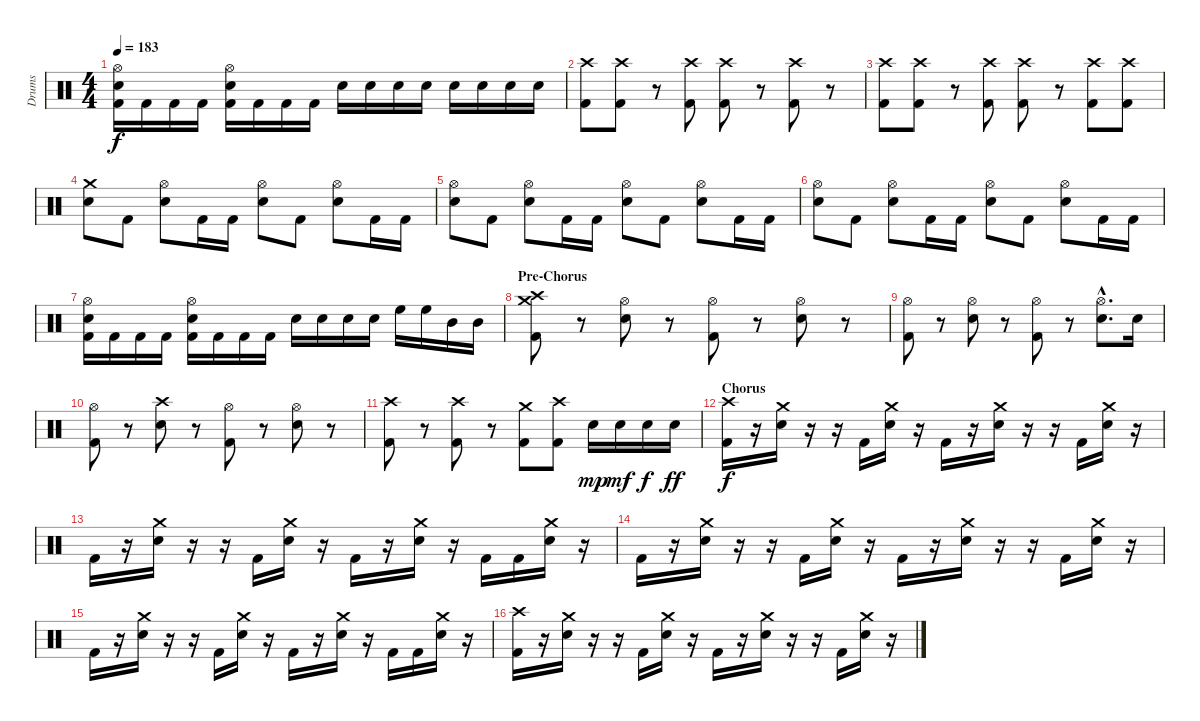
\track ("Drums" "Drums") {instrument percussion}
\staff {score}
\articulation defaults
\ts (4 4)
\tempo 183
\clef neutral
\ks c
("Hi-Hat (open)" "Electric Snare (hit)" "Kick (hit) 2").16{dy f} "Kick (hit) 2".16 "Kick (hit) 2".16 "Kick (hit) 2".16 ("Hi-Hat (open)" "Electric Snare (hit)" "Kick (hit) 2").16 "Kick (hit) 2".16 "Kick (hit) 2".16 "Kick (hit) 2".16 "Electric Snare (hit)".16 "Electric Snare (hit)".16 "Electric Snare (hit)".16 "Electric Snare (hit)".16 "Electric Snare (hit)".16 "Electric Snare (hit)".16 "Electric Snare (hit)".16 "Electric Snare (hit)".16 |
("Crash high (hit)" "Kick (hit) 2").8 ("Crash high (hit)" "Kick (hit) 2").8 r.8{volume 0} ("Crash high (hit)" "Kick (hit) 2").8{volume 16} ("Crash high (hit)" "Kick (hit) 2").8 r.8{volume 0} ("Crash high (hit)" "Kick (hit) 2").8{volume 16} r.8{volume 0} |
("Crash high (hit)" "Kick (hit) 2").8{volume 16} ("Crash high (hit)" "Kick (hit) 2").8 r.8{volume 0} ("Crash high (hit)" "Kick (hit) 2").8{volume 16} ("Crash high (hit)" "Kick (hit) 2").8 r.8{volume 0} ("Crash high (hit)" "Kick (hit) 2").8{volume 16} ("Crash high (hit)" "Kick (hit) 2").8 |
("Crash medium (hit)" "Electric Snare (hit)").8 "Kick (hit) 2".8 ("Hi-Hat (open)" "Electric Snare (hit)").8 "Kick (hit) 2".16 "Kick (hit) 2".16 ("Hi-Hat (open)" "Electric Snare (hit)").8 "Kick (hit) 2".8 ("Hi-Hat (open)" "Electric Snare (hit)").8 "Kick (hit) 2".16 "Kick (hit) 2".16 |
("Hi-Hat (open)" "Electric Snare (hit)").8 "Kick (hit) 2".8 ("Hi-Hat (open)" "Electric Snare (hit)").8 "Kick (hit) 2".16 "Kick (hit) 2".16 ("Hi-Hat (open)" "Electric Snare (hit)").8 "Kick (hit) 2".8 ("Hi-Hat (open)" "Electric Snare (hit)").8 "Kick (hit) 2".16 "Kick (hit) 2".16 |
("Hi-Hat (open)" "Electric Snare (hit)").8 "Kick (hit) 2".8 ("Hi-Hat (open)" "Electric Snare (hit)").8 "Kick (hit) 2".16 "Kick (hit) 2".16 ("Hi-Hat (open)" "Electric Snare (hit)").8 "Kick (hit) 2".8 ("Hi-Hat (open)" "Electric Snare (hit)").8 "Kick (hit) 2".16 "Kick (hit) 2".16 |
("Hi-Hat (open)" "Electric Snare (hit)" "Kick (hit) 2").16 "Kick (hit) 2".16 "Kick (hit) 2".16 "Kick (hit) 2".16 ("Hi-Hat (open)" "Electric Snare (hit)" "Kick (hit) 2").16 "Kick (hit) 2".16 "Kick (hit) 2".16 "Kick (hit) 2".16 "Electric Snare (hit)".16 "Electric Snare (hit)".16 "Electric Snare (hit)".16 "Electric Snare (hit)".16 "High Floor Tom (hit)".16 "High Floor Tom (hit)".16 "Mid Tom (hit)".16 "Mid Tom (hit)".16 |
\section ("" "Pre-Chorus")
("Crash high (hit)" "Crash medium (hit)" "Kick (hit) 2").8 r.8 ("Hi-Hat (open)" "Electric Snare (hit)").8 r.8 ("Hi-Hat (open)" "Kick (hit) 2").8 r.8 ("Hi-Hat (open)" "Electric Snare (hit)").8 r.8 |
("Hi-Hat (open)" "Kick (hit) 2").8 r.8 ("Hi-Hat (open)" "Electric Snare (hit)").8 r.8 ("Hi-Hat (open)" "Kick (hit) 2").8 r.8 ("Hi-Hat (open)"{hac} "Electric Snare (hit)"{hac}).8{d} "Electric Snare (hit)".16 |
("Hi-Hat (open)" "Kick (hit) 2").8 r.8 ("Crash high (hit)" "Electric Snare (hit)").8 r.8 ("Hi-Hat (open)" "Kick (hit) 2").8 r.8 ("Hi-Hat (open)" "Electric Snare (hit)").8 r.8 |
("Crash high (hit)" "Kick (hit) 2").8{volume 16} r.8{volume 0} ("Crash high (hit)" "Kick (hit) 2").8{volume 16} r.8{volume 0} ("Crash medium (hit)" "Kick (hit) 2").8{volume 16} ("Crash high (hit)" "Kick (hit) 2").8 "Electric Snare (hit)".16{dy mp} "Electric Snare (hit)".16{dy mf} "Electric Snare (hit)".16{dy f} "Electric Snare (hit)".16{dy ff} |
\section ("" "Chorus")
("Crash high (hit)" "Kick (hit) 2").16{dy f} r.16 ("Crash medium (hit)" "Electric Snare (hit)").16 r.16 r.16 "Kick (hit) 2".16 ("Crash medium (hit)" "Electric Snare (hit)").16 r.16 "Kick (hit) 2".16 r.16 ("Crash medium (hit)" "Electric Snare (hit)").16 r.16 r.16 "Kick (hit) 2".16 ("Crash medium (hit)" "Electric Snare (hit)").16 r.16 |
"Kick (hit) 2".16 r.16 ("Crash medium (hit)" "Electric Snare (hit)").16 r.16 r.16 "Kick (hit) 2".16 ("Crash medium (hit)" "Electric Snare (hit)").16 r.16 "Kick (hit) 2".16 r.16 ("Crash medium (hit)" "Electric Snare (hit)").16 r.16 "Kick (hit) 2".16 "Kick (hit) 2".16 ("Crash medium (hit)" "Electric Snare (hit)").16 r.16 |
"Kick (hit) 2".16 r.16 ("Crash medium (hit)" "Electric Snare (hit)").16 r.16 r.16 "Kick (hit) 2".16 ("Crash medium (hit)" "Electric Snare (hit)").16 r.16 "Kick (hit) 2".16 r.16 ("Crash medium (hit)" "Electric Snare (hit)").16 r.16 r.16 "Kick (hit) 2".16 ("Crash medium (hit)" "Electric Snare (hit)").16 r.16 |
"Kick (hit) 2".16 r.16 ("Crash medium (hit)" "Electric Snare (hit)").16 r.16 r.16 "Kick (hit) 2".16 ("Crash medium (hit)" "Electric Snare (hit)").16 r.16 "Kick (hit) 2".16 r.16 ("Crash medium (hit)" "Electric Snare (hit)").16 r.16 "Kick (hit) 2".16 "Kick (hit) 2".16 ("Crash medium (hit)" "Electric Snare (hit)").16 r.16 |
("Crash high (hit)" "Kick (hit) 2").16 r.16 ("Crash medium (hit)" "Electric Snare (hit)").16 r.16 r.16 "Kick (hit) 2".16 ("Crash medium (hit)" "Electric Snare (hit)").16 r.16 "Kick (hit) 2".16 r.16 ("Crash medium (hit)" "Electric Snare (hit)").16 r.16 r.16 "Kick (hit) 2".16 ("Crash medium (hit)" "Electric Snare (hit)").16 r.16
